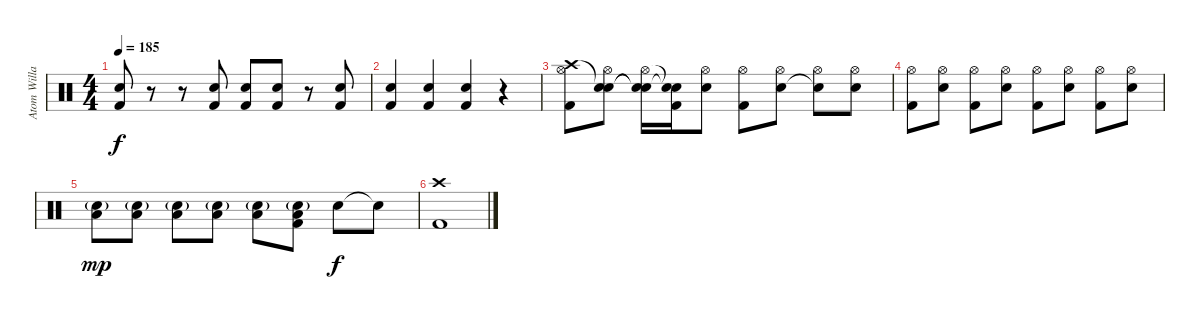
\track ("Atom Willard (Drums)" "Atom Willa") {instrument percussion}
\staff {score}
\articulation defaults
\ts (4 4)
\tempo 185
\clef neutral
\ks c
("Electric Snare (hit)" "Kick (hit) 2").8{dy f} r.8 r.8 ("Electric Snare (hit)" "Kick (hit) 2").8 ("Electric Snare (hit)" "Kick (hit) 2").8 ("Electric Snare (hit)" "Kick (hit) 2").8 r.8 ("Electric Snare (hit)" "Kick (hit) 2").8 |
("Electric Snare (hit)" "Kick (hit) 2").4 ("Electric Snare (hit)" "Kick (hit) 2").4 ("Electric Snare (hit)" "Kick (hit) 2").4 r.4 |
("Crash high (hit)" "Hi-Hat (open)" "Kick (hit) 2").8 ("Snare (hit)"{t} "Hi-Hat (open)" "Snare (hit) 2").8 ("Snare (hit)"{t} "Hi-Hat (open)" "Snare (hit)"{t}).16 ("Snare (hit)"{t} "Snare (hit)"{t} "Kick (hit) 2").16 ("Hi-Hat (open)" "Snare (hit) 2").8 ("Hi-Hat (open)" "Kick (hit) 2").8 ("Hi-Hat (open)" "Snare (hit) 2").8 ("Hi-Hat (open)" "Snare (hit)"{t}).8 ("Hi-Hat (open)" "Snare (hit) 2").8 |
("Hi-Hat (open)" "Kick (hit) 2").8 ("Hi-Hat (open)" "Snare (hit) 2").8 ("Hi-Hat (open)" "Kick (hit) 2").8 ("Hi-Hat (open)" "Snare (hit) 2").8 ("Hi-Hat (open)" "Kick (hit) 2").8 ("Hi-Hat (open)" "Snare (hit) 2").8 ("Hi-Hat (open)" "Kick (hit) 2").8 ("Hi-Hat (open)" "Snare (hit) 2").8 |
("Low Tom (hit)" "Electric Snare (hit)"{g}).8{dy mp} ("Low Tom (hit)" "Electric Snare (hit)"{g}).8 ("Low Tom (hit)" "Electric Snare (hit)"{g}).8 ("Low Tom (hit)" "Electric Snare (hit)"{g}).8 ("Low Tom (hit)" "Electric Snare (hit)"{g}).8 ("Low Tom (hit)" "Electric Snare (hit)"{g} "Kick (hit) 2").8 "Electric Snare (hit)".8{dy f} "Snare (hit)"{t}.8 |
("Crash high (hit)" "Kick (hit) 2").1
